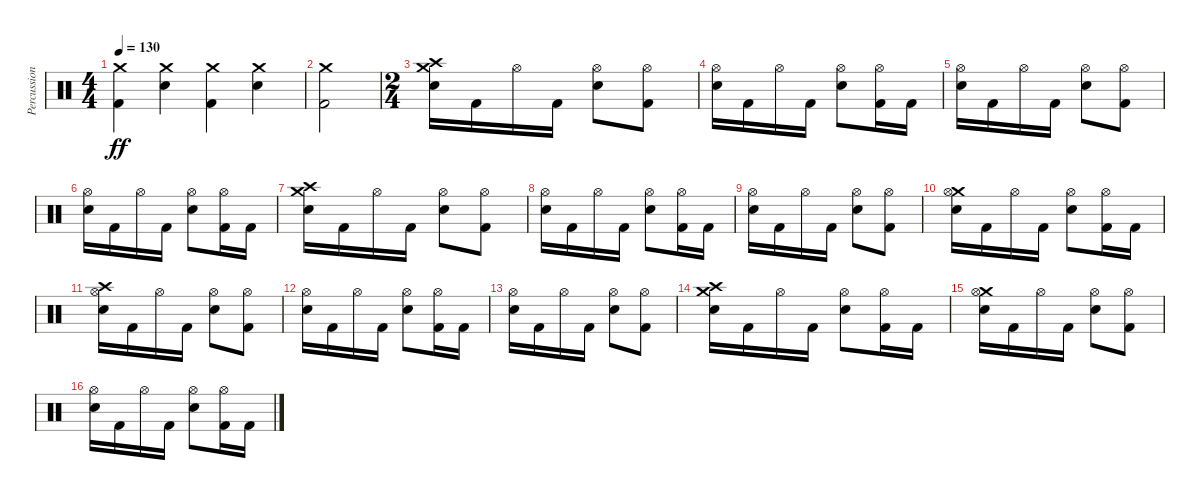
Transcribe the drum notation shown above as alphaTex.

\track ("Percussion" "Percussion") {instrument percussion}
\staff {score}
\articulation defaults
\ts (4 4)
\tempo 130
\clef neutral
\ks c
("Crash medium (hit)" "Kick (hit) 2").4{dy ff} ("Crash medium (hit)" "Snare (hit) 2").4 ("Crash medium (hit)" "Kick (hit) 2").4 ("Crash medium (hit)" "Snare (hit) 2").4 |
("Crash medium (hit)" "Kick (hit) 2").2 |
\ts (2 4)
("Crash high (hit)" "Crash medium (hit)" "Snare (hit) 2").16 "Kick (hit) 2".16 "Hi-Hat (open)".16 "Kick (hit) 2".16 ("Hi-Hat (open)" "Snare (hit) 2").8 ("Hi-Hat (open)" "Kick (hit) 2").8 |
("Hi-Hat (open)" "Snare (hit) 2").16 "Kick (hit) 2".16 "Hi-Hat (open)".16 "Kick (hit) 2".16 ("Hi-Hat (open)" "Snare (hit) 2").8 ("Hi-Hat (open)" "Kick (hit) 2").16 "Kick (hit) 2".16 |
("Hi-Hat (open)" "Snare (hit) 2").16 "Kick (hit) 2".16 "Hi-Hat (open)".16 "Kick (hit) 2".16 ("Hi-Hat (open)" "Snare (hit) 2").8 ("Hi-Hat (open)" "Kick (hit) 2").8 |
("Hi-Hat (open)" "Snare (hit) 2").16 "Kick (hit) 2".16 "Hi-Hat (open)".16 "Kick (hit) 2".16 ("Hi-Hat (open)" "Snare (hit) 2").8 ("Hi-Hat (open)" "Kick (hit) 2").16 "Kick (hit) 2".16 |
("Crash high (hit)" "Crash medium (hit)" "Snare (hit) 2").16 "Kick (hit) 2".16 "Hi-Hat (open)".16 "Kick (hit) 2".16 ("Hi-Hat (open)" "Snare (hit) 2").8 ("Hi-Hat (open)" "Kick (hit) 2").8 |
("Hi-Hat (open)" "Snare (hit) 2").16 "Kick (hit) 2".16 "Hi-Hat (open)".16 "Kick (hit) 2".16 ("Hi-Hat (open)" "Snare (hit) 2").8 ("Hi-Hat (open)" "Kick (hit) 2").16 "Kick (hit) 2".16 |
("Hi-Hat (open)" "Snare (hit) 2").16 "Kick (hit) 2".16 "Hi-Hat (open)".16 "Kick (hit) 2".16 ("Hi-Hat (open)" "Snare (hit) 2").8 ("Hi-Hat (open)" "Kick (hit) 2").8 |
("Crash medium (hit)" "Hi-Hat (open)" "Snare (hit) 2").16 "Kick (hit) 2".16 "Hi-Hat (open)".16 "Kick (hit) 2".16 ("Hi-Hat (open)" "Snare (hit) 2").8 ("Hi-Hat (open)" "Kick (hit) 2").16 "Kick (hit) 2".16 |
("Crash high (hit)" "Hi-Hat (open)" "Snare (hit) 2").16 "Kick (hit) 2".16 "Hi-Hat (open)".16 "Kick (hit) 2".16 ("Hi-Hat (open)" "Snare (hit) 2").8 ("Hi-Hat (open)" "Kick (hit) 2").8 |
("Hi-Hat (open)" "Snare (hit) 2").16 "Kick (hit) 2".16 "Hi-Hat (open)".16 "Kick (hit) 2".16 ("Hi-Hat (open)" "Snare (hit) 2").8 ("Hi-Hat (open)" "Kick (hit) 2").16 "Kick (hit) 2".16 |
("Hi-Hat (open)" "Snare (hit) 2").16 "Kick (hit) 2".16 "Hi-Hat (open)".16 "Kick (hit) 2".16 ("Hi-Hat (open)" "Snare (hit) 2").8 ("Hi-Hat (open)" "Kick (hit) 2").8 |
("Crash medium (hit)" "Crash high (hit)" "Snare (hit) 2").16 "Kick (hit) 2".16 "Hi-Hat (open)".16 "Kick (hit) 2".16 ("Hi-Hat (open)" "Snare (hit) 2").8 ("Hi-Hat (open)" "Kick (hit) 2").16 "Kick (hit) 2".16 |
("Crash medium (hit)" "Hi-Hat (open)" "Snare (hit) 2").16 "Kick (hit) 2".16 "Hi-Hat (open)".16 "Kick (hit) 2".16 ("Hi-Hat (open)" "Snare (hit) 2").8 ("Hi-Hat (open)" "Kick (hit) 2").8 |
("Hi-Hat (open)" "Snare (hit) 2").16 "Kick (hit) 2".16 "Hi-Hat (open)".16 "Kick (hit) 2".16 ("Hi-Hat (open)" "Snare (hit) 2").8 ("Hi-Hat (open)" "Kick (hit) 2").16 "Kick (hit) 2".16
